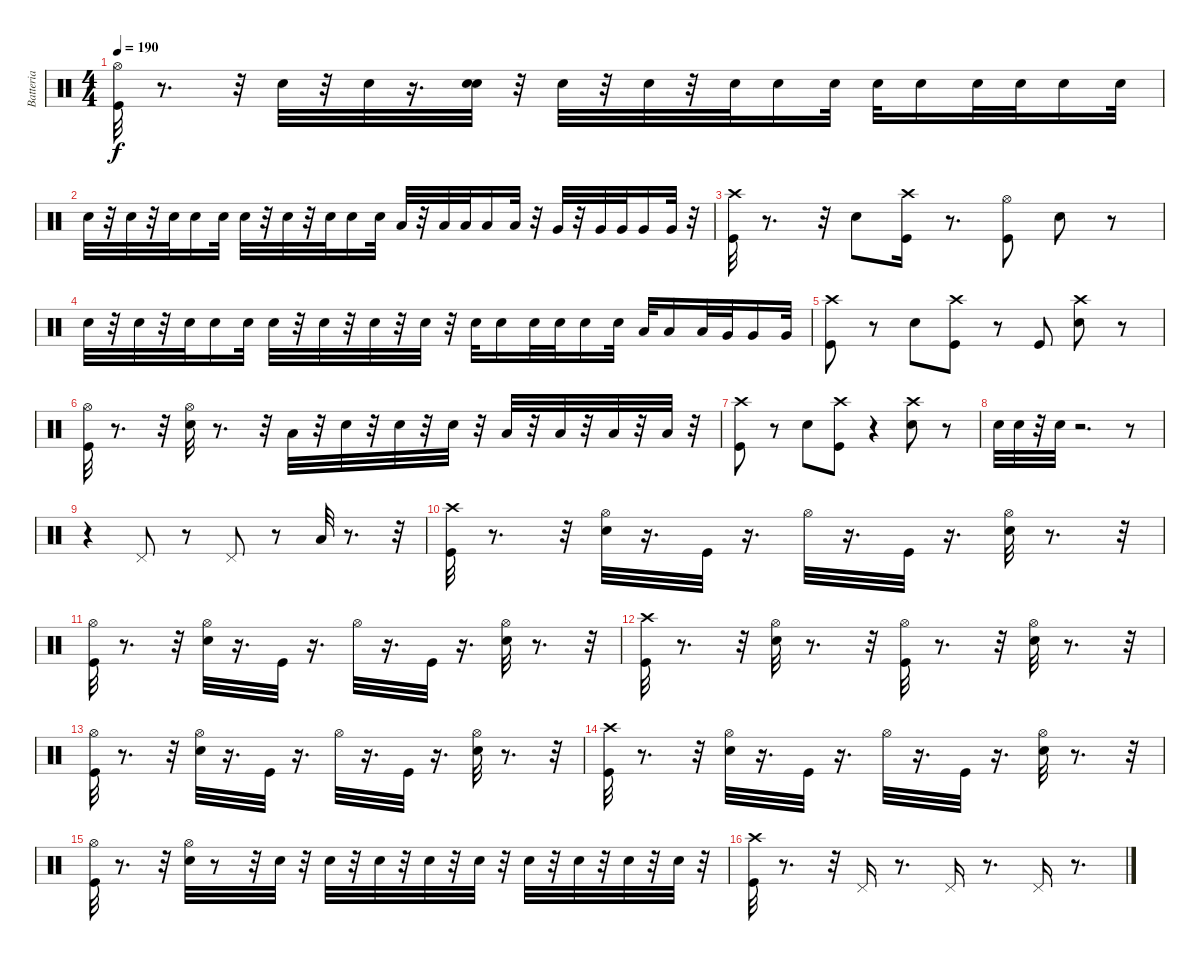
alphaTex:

\track ("Batteria" "Batteria") {instrument percussion}
\staff {score}
\articulation defaults
\ts (4 4)
\tempo 190
\clef neutral
\ks c
("Hi-Hat (open)" "Kick (hit)").32{dy f} r.8{d} r.32 "Snare (hit) 2".32 r.32 "Snare (hit) 2".32 r.16{d} ("Snare (hit) 2" "Snare (hit) 2").32 r.32 "Snare (hit) 2".32 r.32 "Snare (hit) 2".32 r.32 "Snare (hit) 2".32 "Snare (hit) 2".16 "Snare (hit) 2".32 "Snare (hit) 2".32 "Snare (hit) 2".16 "Snare (hit) 2".32 "Snare (hit) 2".32 "Snare (hit) 2".16 "Snare (hit) 2".32 |
"Snare (hit) 2".32 r.32 "Snare (hit) 2".32 r.32 "Snare (hit) 2".32 "Snare (hit) 2".16 "Snare (hit) 2".32 "Snare (hit) 2".32 r.32 "Snare (hit) 2".32 r.32 "Snare (hit) 2".32 "Snare (hit) 2".16 "Snare (hit) 2".32 "Low Tom (hit)".32 r.32 "Low Tom (hit)".32 "Low Tom (hit)".32 "Low Tom (hit)".16 "Low Tom (hit)".32 r.32 "Very Low Tom (hit)".32 r.32 "Very Low Tom (hit)".32 "Very Low Tom (hit)".32 "Very Low Tom (hit)".16 "Very Low Tom (hit)".32 r.32 |
("Crash high (hit)" "Kick (hit)").32 r.8{d} r.32 "Snare (hit) 2".8 ("Crash high (hit)" "Kick (hit)").16 r.8{d} ("Hi-Hat (open)" "Kick (hit)").8 "Snare (hit) 2".8 r.8 |
"Snare (hit) 2".32 r.32 "Snare (hit) 2".32 r.32 "Snare (hit) 2".32 "Snare (hit) 2".16 "Snare (hit) 2".32 "Snare (hit) 2".32 r.32 "Snare (hit) 2".32 r.32 "Snare (hit) 2".32 r.32 "Snare (hit) 2".32 r.32 "Snare (hit) 2".32 "Snare (hit) 2".16 "Snare (hit) 2".32 "Snare (hit) 2".32 "Snare (hit) 2".16 "Snare (hit) 2".32 "Low Tom (hit)".32 "Low Tom (hit)".16 "Low Tom (hit)".32 "Very Low Tom (hit)".32 "Very Low Tom (hit)".16 "Very Low Tom (hit)".32 |
("Crash high (hit)" "Kick (hit)").8 r.8 "Snare (hit) 2".8 ("Kick (hit)" "Crash high (hit)").8 r.8 "Kick (hit)".8 ("Crash high (hit)" "Snare (hit) 2").8 r.8 |
("Hi-Hat (open)" "Kick (hit)").32 r.8{d} r.32 ("Hi-Hat (open)" "Snare (hit) 2").32 r.8{d} r.32 "Low Tom (hit)".32 r.32 "Snare (hit) 2".32 r.32 "Snare (hit) 2".32 r.32 "Snare (hit) 2".32 r.32 "Low Tom (hit)".32 r.32 "Low Tom (hit)".32 r.32 "Low Tom (hit)".32 r.32 "Low Tom (hit)".32 r.32 |
("Crash high (hit)" "Kick (hit)").8 r.8 "Snare (hit) 2".8 ("Crash high (hit)" "Kick (hit)").8 r.4 ("Crash high (hit)" "Snare (hit) 2").8 r.8 |
"Snare (hit) 2".32 "Snare (hit) 2".32 r.32 "Snare (hit) 2".32 r.2{d} r.8 |
r.4 "Pedal Hi-Hat (hit)".8 r.8 "Pedal Hi-Hat (hit)".8 r.8 "Low Tom (hit)".32 r.8{d} r.32 |
("Crash high (hit)" "Kick (hit)").32 r.8{d} r.32 ("Hi-Hat (open)" "Snare (hit) 2").32 r.16{d} "Kick (hit)".32 r.16{d} "Hi-Hat (open)".32 r.16{d} "Kick (hit)".32 r.16{d} ("Hi-Hat (open)" "Snare (hit) 2").32 r.8{d} r.32 |
("Kick (hit)" "Hi-Hat (open)").32 r.8{d} r.32 ("Snare (hit) 2" "Hi-Hat (open)").32 r.16{d} "Kick (hit)".32 r.16{d} "Hi-Hat (open)".32 r.16{d} "Kick (hit)".32 r.16{d} ("Snare (hit) 2" "Hi-Hat (open)").32 r.8{d} r.32 |
("Kick (hit)" "Crash high (hit)").32 r.8{d} r.32 ("Snare (hit) 2" "Hi-Hat (open)").32 r.8{d} r.32 ("Kick (hit)" "Hi-Hat (open)").32 r.8{d} r.32 ("Hi-Hat (open)" "Snare (hit) 2").32 r.8{d} r.32 |
("Kick (hit)" "Hi-Hat (open)").32 r.8{d} r.32 ("Hi-Hat (open)" "Snare (hit) 2").32 r.16{d} "Kick (hit)".32 r.16{d} "Hi-Hat (open)".32 r.16{d} "Kick (hit)".32 r.16{d} ("Hi-Hat (open)" "Snare (hit) 2").32 r.8{d} r.32 |
("Crash high (hit)" "Kick (hit)").32 r.8{d} r.32 ("Hi-Hat (open)" "Snare (hit) 2").32 r.16{d} "Kick (hit)".32 r.16{d} "Hi-Hat (open)".32 r.16{d} "Kick (hit)".32 r.16{d} ("Hi-Hat (open)" "Snare (hit) 2").32 r.8{d} r.32 |
("Hi-Hat (open)" "Kick (hit)").32 r.8{d} r.32 ("Snare (hit) 2" "Hi-Hat (open)").32 r.8 r.32 "Snare (hit) 2".32 r.32 "Snare (hit) 2".32 r.32 "Snare (hit) 2".32 r.32 "Snare (hit) 2".32 r.32 "Snare (hit) 2".32 r.32 "Snare (hit) 2".32 r.32 "Snare (hit) 2".32 r.32 "Snare (hit) 2".32 r.32 "Snare (hit) 2".32 r.32 |
("Kick (hit)" "Crash high (hit)").32 r.8{d} r.32 "Pedal Hi-Hat (hit)".16 r.8{d} "Pedal Hi-Hat (hit)".16 r.8{d} "Pedal Hi-Hat (hit)".16 r.8{d}
